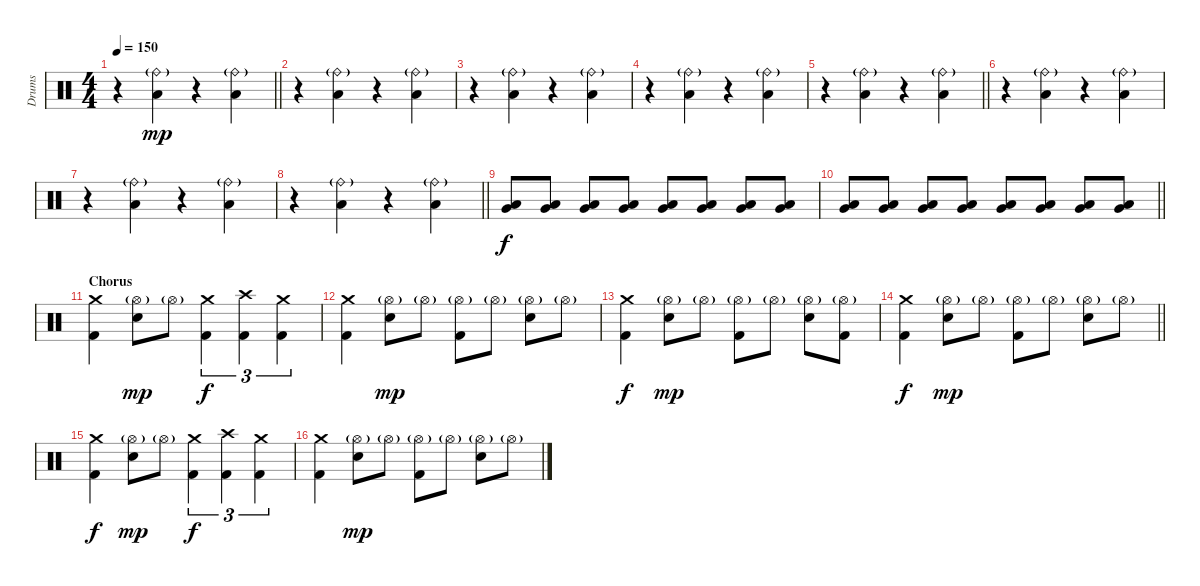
\track ("Drums" "Drums") {instrument percussion}
\staff {score}
\articulation defaults
\ts (4 4)
\tempo 150
\clef neutral
\barLineRight lightlight
\ks c
r.4{dy mp} ("Low Floor Tom (hit)" "Ride (bell)"{g}).4 r.4 ("Low Floor Tom (hit)" "Ride (bell)"{g}).4 |
\section ("" "")
r.4 ("Low Floor Tom (hit)" "Ride (bell)"{g}).4 r.4 ("Low Floor Tom (hit)" "Ride (bell)"{g}).4 |
r.4 ("Low Floor Tom (hit)" "Ride (bell)"{g}).4 r.4 ("Low Floor Tom (hit)" "Ride (bell)"{g}).4 |
r.4 ("Low Floor Tom (hit)" "Ride (bell)"{g}).4 r.4 ("Low Floor Tom (hit)" "Ride (bell)"{g}).4 |
\barLineRight lightlight
r.4 ("Low Floor Tom (hit)" "Ride (bell)"{g}).4 r.4 ("Low Floor Tom (hit)" "Ride (bell)"{g}).4 |
\section ("" "")
r.4 ("Low Floor Tom (hit)" "Ride (bell)"{g}).4 r.4 ("Low Floor Tom (hit)" "Ride (bell)"{g}).4 |
r.4 ("Low Floor Tom (hit)" "Ride (bell)"{g}).4 r.4 ("Low Floor Tom (hit)" "Ride (bell)"{g}).4 |
\barLineRight lightlight
r.4 ("Low Floor Tom (hit)" "Ride (bell)"{g}).4 r.4 ("Low Floor Tom (hit)" "Ride (bell)"{g}).4 |
\section ("" "")
("Low Floor Tom (hit)" "Very Low Tom (hit)").8{dy f volume 0} ("Low Floor Tom (hit)" "Very Low Tom (hit)").8{volume 16} ("Low Floor Tom (hit)" "Very Low Tom (hit)").8 ("Low Floor Tom (hit)" "Very Low Tom (hit)").8 ("Low Floor Tom (hit)" "Very Low Tom (hit)").8 ("Low Floor Tom (hit)" "Very Low Tom (hit)").8 ("Low Floor Tom (hit)" "Very Low Tom (hit)").8 ("Low Floor Tom (hit)" "Very Low Tom (hit)").8 |
\barLineRight lightlight
("Low Floor Tom (hit)" "Very Low Tom (hit)").8 ("Low Floor Tom (hit)" "Very Low Tom (hit)").8 ("Low Floor Tom (hit)" "Very Low Tom (hit)").8 ("Low Floor Tom (hit)" "Very Low Tom (hit)").8 ("Low Floor Tom (hit)" "Very Low Tom (hit)").8 ("Low Floor Tom (hit)" "Very Low Tom (hit)").8 ("Low Floor Tom (hit)" "Very Low Tom (hit)").8 ("Low Floor Tom (hit)" "Very Low Tom (hit)").8 |
\section ("" "Chorus")
("Kick (hit) 2" "Crash medium (hit)").4 ("Snare (hit) 2" "Hi-Hat (open)"{g}).8{dy mp} "Hi-Hat (open)"{g}.8 ("Kick (hit) 2" "Crash medium (hit)").4{tu (3 2) dy f} ("Kick (hit) 2" "Crash high (hit)").4{tu (3 2)} ("Kick (hit) 2" "Crash medium (hit)").4{tu (3 2)} |
("Kick (hit) 2" "Crash medium (hit)").4 ("Snare (hit) 2" "Hi-Hat (open)"{g}).8{dy mp} "Hi-Hat (open)"{g}.8 ("Kick (hit) 2" "Hi-Hat (open)"{g}).8 "Hi-Hat (open)"{g}.8 ("Snare (hit) 2" "Hi-Hat (open)"{g}).8 "Hi-Hat (open)"{g}.8 |
("Kick (hit) 2" "Crash medium (hit)").4{dy f} ("Snare (hit) 2" "Hi-Hat (open)"{g}).8{dy mp} "Hi-Hat (open)"{g}.8 ("Kick (hit) 2" "Hi-Hat (open)"{g}).8 "Hi-Hat (open)"{g}.8 ("Snare (hit) 2" "Hi-Hat (open)"{g}).8 ("Kick (hit) 2" "Hi-Hat (open)"{g}).8 |
\barLineRight lightlight
("Kick (hit) 2" "Crash medium (hit)").4{dy f} ("Snare (hit) 2" "Hi-Hat (open)"{g}).8{dy mp} "Hi-Hat (open)"{g}.8 ("Kick (hit) 2" "Hi-Hat (open)"{g}).8 "Hi-Hat (open)"{g}.8 ("Snare (hit) 2" "Hi-Hat (open)"{g}).8 "Hi-Hat (open)"{g}.8 |
\section ("" "")
("Kick (hit) 2" "Crash medium (hit)").4{dy f} ("Snare (hit) 2" "Hi-Hat (open)"{g}).8{dy mp} "Hi-Hat (open)"{g}.8 ("Kick (hit) 2" "Crash medium (hit)").4{tu (3 2) dy f} ("Kick (hit) 2" "Crash high (hit)").4{tu (3 2)} ("Kick (hit) 2" "Crash medium (hit)").4{tu (3 2)} |
("Kick (hit) 2" "Crash medium (hit)").4 ("Snare (hit) 2" "Hi-Hat (open)"{g}).8{dy mp} "Hi-Hat (open)"{g}.8 ("Kick (hit) 2" "Hi-Hat (open)"{g}).8 "Hi-Hat (open)"{g}.8 ("Snare (hit) 2" "Hi-Hat (open)"{g}).8 "Hi-Hat (open)"{g}.8
